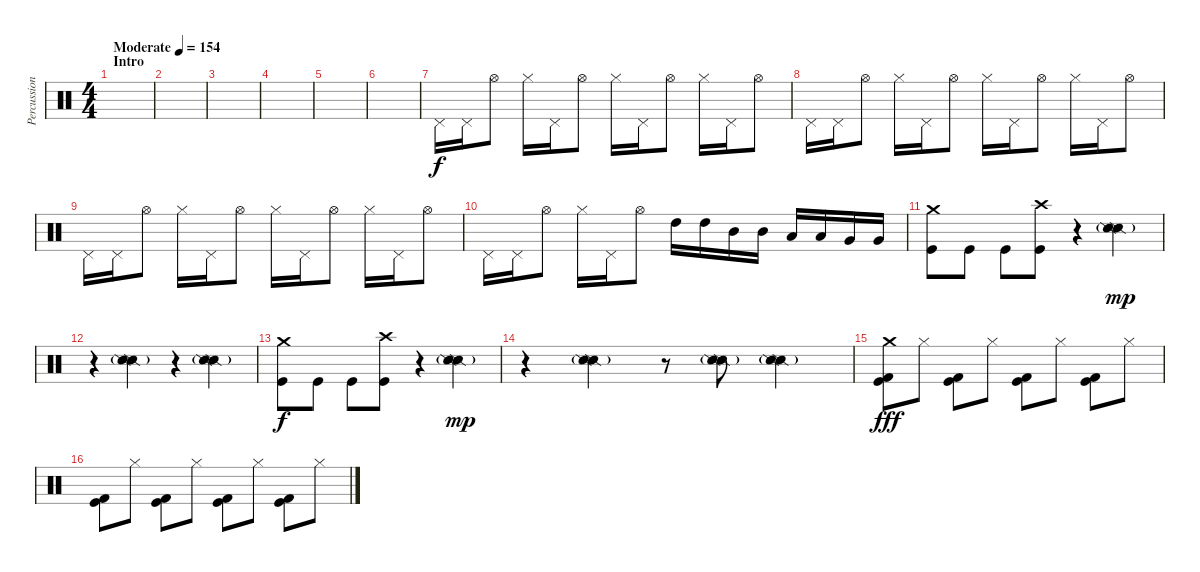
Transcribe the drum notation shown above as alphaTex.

\track ("Percussion" "Percussion") {instrument percussion}
\staff {score}
\articulation defaults
\ts (4 4)
\section ("" "Intro")
\tempo (154 "Moderate")
\clef neutral
\ks c
|
|
|
|
|
|
"Pedal Hi-Hat (hit)".16 "Pedal Hi-Hat (hit)".16 "Hi-Hat (open)".8 "Hi-Hat (closed)".16 "Pedal Hi-Hat (hit)".16 "Hi-Hat (open)".8 "Hi-Hat (closed)".16 "Pedal Hi-Hat (hit)".16 "Hi-Hat (open)".8 "Hi-Hat (closed)".16 "Pedal Hi-Hat (hit)".16 "Hi-Hat (open)".8 |
"Pedal Hi-Hat (hit)".16 "Pedal Hi-Hat (hit)".16 "Hi-Hat (open)".8 "Hi-Hat (closed)".16 "Pedal Hi-Hat (hit)".16 "Hi-Hat (open)".8 "Hi-Hat (closed)".16 "Pedal Hi-Hat (hit)".16 "Hi-Hat (open)".8 "Hi-Hat (closed)".16 "Pedal Hi-Hat (hit)".16 "Hi-Hat (open)".8 |
"Pedal Hi-Hat (hit)".16 "Pedal Hi-Hat (hit)".16 "Hi-Hat (open)".8 "Hi-Hat (closed)".16 "Pedal Hi-Hat (hit)".16 "Hi-Hat (open)".8 "Hi-Hat (closed)".16 "Pedal Hi-Hat (hit)".16 "Hi-Hat (open)".8 "Hi-Hat (closed)".16 "Pedal Hi-Hat (hit)".16 "Hi-Hat (open)".8 |
"Pedal Hi-Hat (hit)".16 "Pedal Hi-Hat (hit)".16 "Hi-Hat (open)".8 "Hi-Hat (closed)".16 "Pedal Hi-Hat (hit)".16 "Hi-Hat (open)".8 "High Tom (hit)".16 "High Tom (hit)".16 "Mid Tom (hit)".16 "Mid Tom (hit)".16 "Low Tom (hit)".16 "Low Tom (hit)".16 "Very Low Tom (hit)".16 "Very Low Tom (hit)".16 |
("Crash medium (hit)" "Kick (hit)").8 "Kick (hit)".8 "Kick (hit)".8 ("Crash high (hit)" "Kick (hit)").8 r.4 ("Snare (side stick) 2" "Snare (side stick) 2"{g}).4{dy mp} |
r.4 ("Snare (side stick) 2" "Snare (side stick) 2"{g}).4 r.4 ("Snare (side stick) 2" "Snare (side stick) 2"{g}).4 |
("Crash medium (hit)" "Kick (hit)").8{dy f} "Kick (hit)".8 "Kick (hit)".8 ("Crash high (hit)" "Kick (hit)").8 r.4 ("Snare (side stick) 2" "Snare (side stick) 2"{g}).4{dy mp} |
r.4 ("Snare (side stick) 2" "Snare (side stick) 2"{g}).4 r.8 ("Snare (side stick) 2" "Snare (side stick) 2"{g}).8 ("Snare (side stick) 2" "Snare (side stick) 2"{g}).4 |
("Crash medium (hit)" "Kick (hit)" "Kick (hit) 2").8{dy fff} "Hi-Hat (closed)".8 ("Kick (hit)" "Kick (hit) 2").8 "Hi-Hat (closed)".8 ("Kick (hit)" "Kick (hit) 2").8 "Hi-Hat (closed)".8 ("Kick (hit)" "Kick (hit) 2").8 "Hi-Hat (closed)".8 |
("Kick (hit)" "Kick (hit) 2").8 "Hi-Hat (closed)".8 ("Kick (hit)" "Kick (hit) 2").8 "Hi-Hat (closed)".8 ("Kick (hit)" "Kick (hit) 2").8 "Hi-Hat (closed)".8 ("Kick (hit)" "Kick (hit) 2").8 "Hi-Hat (closed)".8
